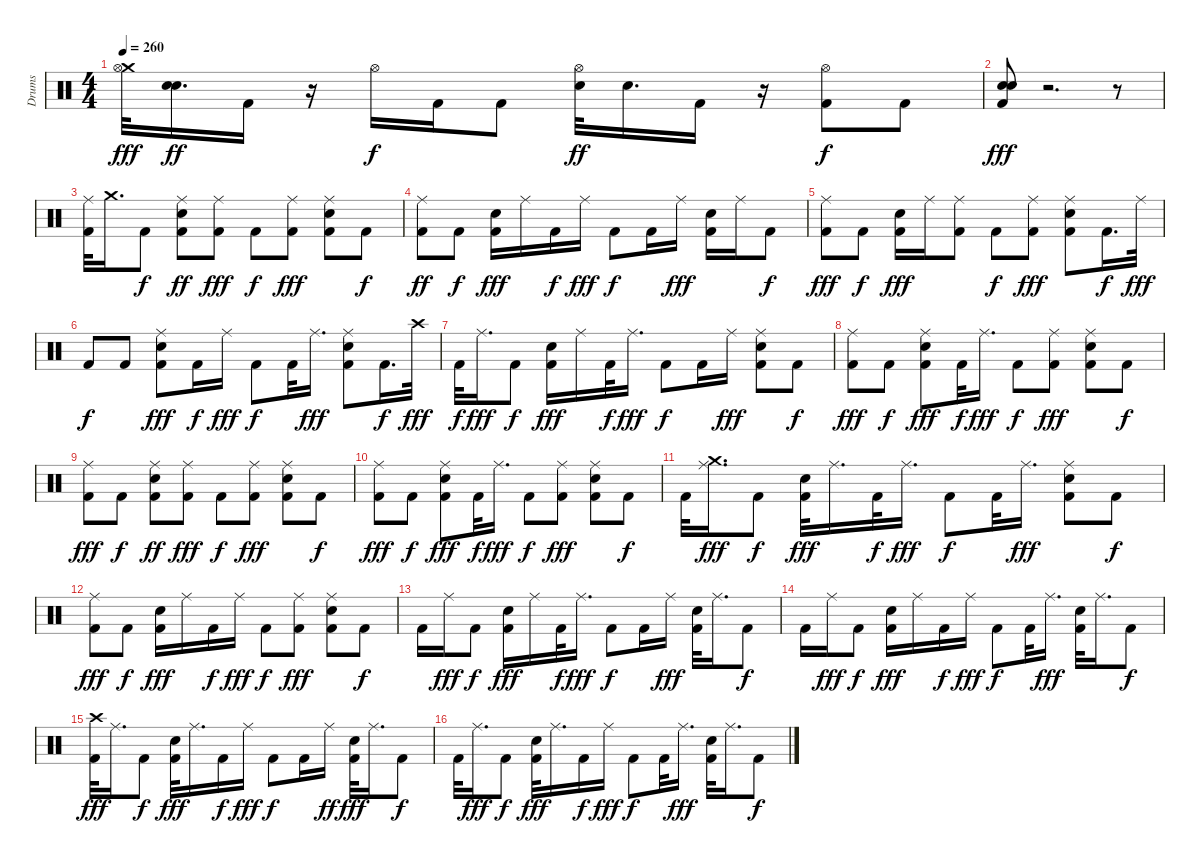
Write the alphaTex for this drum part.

\track ("Drums" "Drums") {instrument percussion}
\staff {score}
\articulation defaults
\ts (4 4)
\tempo 260
\clef neutral
\ks c
("Crash medium (hit)" "Hi-Hat (open)").32{dy fff} ("Electric Snare (hit)" "Snare (hit) 2").16{d dy ff} "Kick (hit) 2".16 r.16 "Hi-Hat (open)".16{dy f} "Kick (hit) 2".16 "Kick (hit) 2".8 ("Electric Snare (hit)" "Hi-Hat (open)").32{dy ff} "Snare (hit) 2".16{d} "Kick (hit) 2".16 r.16 ("Hi-Hat (open)" "Kick (hit) 2").8{dy f} "Kick (hit) 2".8 |
("Electric Snare (hit)" "Snare (hit) 2" "Kick (hit) 2").8{dy fff} r.2{d} r.8 |
("Ride (middle)" "Kick (hit) 2").32 "Crash medium (hit)".16{d} "Kick (hit) 2".8{dy f} ("Snare (hit) 2" "Kick (hit) 2" "Ride (middle)").8{dy ff} ("Kick (hit) 2" "Ride (middle)").8{dy fff} "Kick (hit) 2".8{dy f} ("Ride (middle)" "Kick (hit) 2").8{dy fff} ("Snare (hit) 2" "Kick (hit) 2" "Ride (middle)").8 "Kick (hit) 2".8{dy f} |
("Kick (hit) 2" "Ride (middle)").8{dy ff} "Kick (hit) 2".8{dy f} ("Snare (hit) 2" "Kick (hit) 2").16{dy fff} "Ride (middle)".16 "Kick (hit) 2".16{dy f} "Ride (middle)".16{dy fff} "Kick (hit) 2".8{dy f} "Kick (hit) 2".16 "Ride (middle)".16{dy fff} ("Snare (hit) 2" "Kick (hit) 2").16 "Ride (middle)".16 "Kick (hit) 2".8{dy f} |
("Kick (hit) 2" "Ride (middle)").8{dy fff} "Kick (hit) 2".8{dy f} ("Snare (hit) 2" "Kick (hit) 2").16{dy fff} "Ride (middle)".16 ("Kick (hit) 2" "Ride (middle)").8 "Kick (hit) 2".8{dy f} ("Kick (hit) 2" "Ride (middle)").8{dy fff} ("Ride (middle)" "Snare (hit) 2" "Kick (hit) 2").8 "Kick (hit) 2".16{d dy f} "Ride (middle)".32{dy fff} |
"Kick (hit) 2".8{dy f} "Kick (hit) 2".8 ("Snare (hit) 2" "Kick (hit) 2" "Ride (middle)").8{dy fff} "Kick (hit) 2".16{dy f} "Ride (middle)".16{dy fff} "Kick (hit) 2".8{dy f} "Kick (hit) 2".32 "Ride (middle)".16{d dy fff} ("Snare (hit) 2" "Kick (hit) 2" "Ride (middle)").8 "Kick (hit) 2".16{d dy f} "Crash high (hit)".32{dy fff} |
"Kick (hit) 2".32{dy f} "Ride (middle)".16{d dy fff} "Kick (hit) 2".8{dy f} ("Snare (hit) 2" "Kick (hit) 2").16{dy fff} "Ride (middle)".16 "Kick (hit) 2".32{dy f} "Ride (middle)".16{d dy fff} "Kick (hit) 2".8{dy f} "Kick (hit) 2".16 "Ride (middle)".16{dy fff} ("Ride (middle)" "Snare (hit) 2" "Kick (hit) 2").8 "Kick (hit) 2".8{dy f} |
("Ride (middle)" "Kick (hit) 2").8{dy fff} "Kick (hit) 2".8{dy f} ("Snare (hit) 2" "Kick (hit) 2" "Ride (middle)").8{dy fff} "Kick (hit) 2".32{dy f} "Ride (middle)".16{d dy fff} "Kick (hit) 2".8{dy f} ("Ride (middle)" "Kick (hit) 2").8{dy fff} ("Ride (middle)" "Snare (hit) 2" "Kick (hit) 2").8 "Kick (hit) 2".8{dy f} |
("Kick (hit) 2" "Ride (middle)").8{dy fff} "Kick (hit) 2".8{dy f} ("Snare (hit) 2" "Kick (hit) 2" "Ride (middle)").8{dy ff} ("Ride (middle)" "Kick (hit) 2").8{dy fff} "Kick (hit) 2".8{dy f} ("Ride (middle)" "Kick (hit) 2").8{dy fff} ("Ride (middle)" "Snare (hit) 2" "Kick (hit) 2").8 "Kick (hit) 2".8{dy f} |
("Kick (hit) 2" "Ride (middle)").8{dy fff} "Kick (hit) 2".8{dy f} ("Snare (hit) 2" "Kick (hit) 2" "Ride (middle)").8{dy fff} "Kick (hit) 2".32{dy f} "Ride (middle)".16{d dy fff} "Kick (hit) 2".8{dy f} ("Kick (hit) 2" "Ride (middle)").8{dy fff} ("Snare (hit) 2" "Kick (hit) 2" "Ride (middle)").8 "Kick (hit) 2".8{dy f} |
"Kick (hit) 2".32 ("Crash medium (hit)" "Ride (middle)").16{d dy fff} "Kick (hit) 2".8{dy f} ("Snare (hit) 2" "Kick (hit) 2").32{dy fff} "Ride (middle)".16{d} "Kick (hit) 2".32{dy f} "Ride (middle)".16{d dy fff} "Kick (hit) 2".8{dy f} "Kick (hit) 2".32 "Ride (middle)".16{d dy fff} ("Snare (hit) 2" "Kick (hit) 2" "Ride (middle)").8 "Kick (hit) 2".8{dy f} |
("Ride (middle)" "Kick (hit) 2").8{dy fff} "Kick (hit) 2".8{dy f} ("Snare (hit) 2" "Kick (hit) 2").16{dy fff} "Ride (middle)".16 "Kick (hit) 2".16{dy f} "Ride (middle)".16{dy fff} "Kick (hit) 2".8{dy f} ("Kick (hit) 2" "Ride (middle)").8{dy fff} ("Snare (hit) 2" "Kick (hit) 2" "Ride (middle)").8 "Kick (hit) 2".8{dy f} |
"Kick (hit) 2".16 "Ride (middle)".16{dy fff} "Kick (hit) 2".8{dy f} ("Snare (hit) 2" "Kick (hit) 2").16{dy fff} "Ride (middle)".16 "Kick (hit) 2".32{dy f} "Ride (middle)".16{d dy fff} "Kick (hit) 2".8{dy f} "Kick (hit) 2".16 "Ride (middle)".16{dy fff} ("Snare (hit) 2" "Kick (hit) 2").32 "Ride (middle)".16{d} "Kick (hit) 2".8{dy f} |
"Kick (hit) 2".16 "Ride (middle)".16{dy fff} "Kick (hit) 2".8{dy f} ("Snare (hit) 2" "Kick (hit) 2").16{dy fff} "Ride (middle)".16 "Kick (hit) 2".16{dy f} "Ride (middle)".16{dy fff} "Kick (hit) 2".8{dy f} "Kick (hit) 2".32 "Ride (middle)".16{d dy fff} ("Snare (hit) 2" "Kick (hit) 2").32 "Ride (middle)".16{d} "Kick (hit) 2".8{dy f} |
("Kick (hit) 2" "Crash high (hit)").32{dy fff} "Ride (middle)".16{d} "Kick (hit) 2".8{dy f} ("Snare (hit) 2" "Kick (hit) 2").32{dy fff} "Ride (middle)".16{d} "Kick (hit) 2".16{dy f} "Ride (middle)".16{dy fff} "Kick (hit) 2".8{dy f} "Kick (hit) 2".16 "Ride (middle)".16{dy ff} ("Snare (hit) 2" "Kick (hit) 2").32{dy fff} "Ride (middle)".16{d} "Kick (hit) 2".8{dy f} |
"Kick (hit) 2".32 "Ride (middle)".16{d dy fff} "Kick (hit) 2".8{dy f} ("Snare (hit) 2" "Kick (hit) 2").32{dy fff} "Ride (middle)".16{d} "Kick (hit) 2".16{dy f} "Ride (middle)".16{dy fff} "Kick (hit) 2".8{dy f} "Kick (hit) 2".32 "Ride (middle)".16{d dy fff} ("Snare (hit) 2" "Kick (hit) 2").32 "Ride (middle)".16{d} "Kick (hit) 2".8{dy f}
